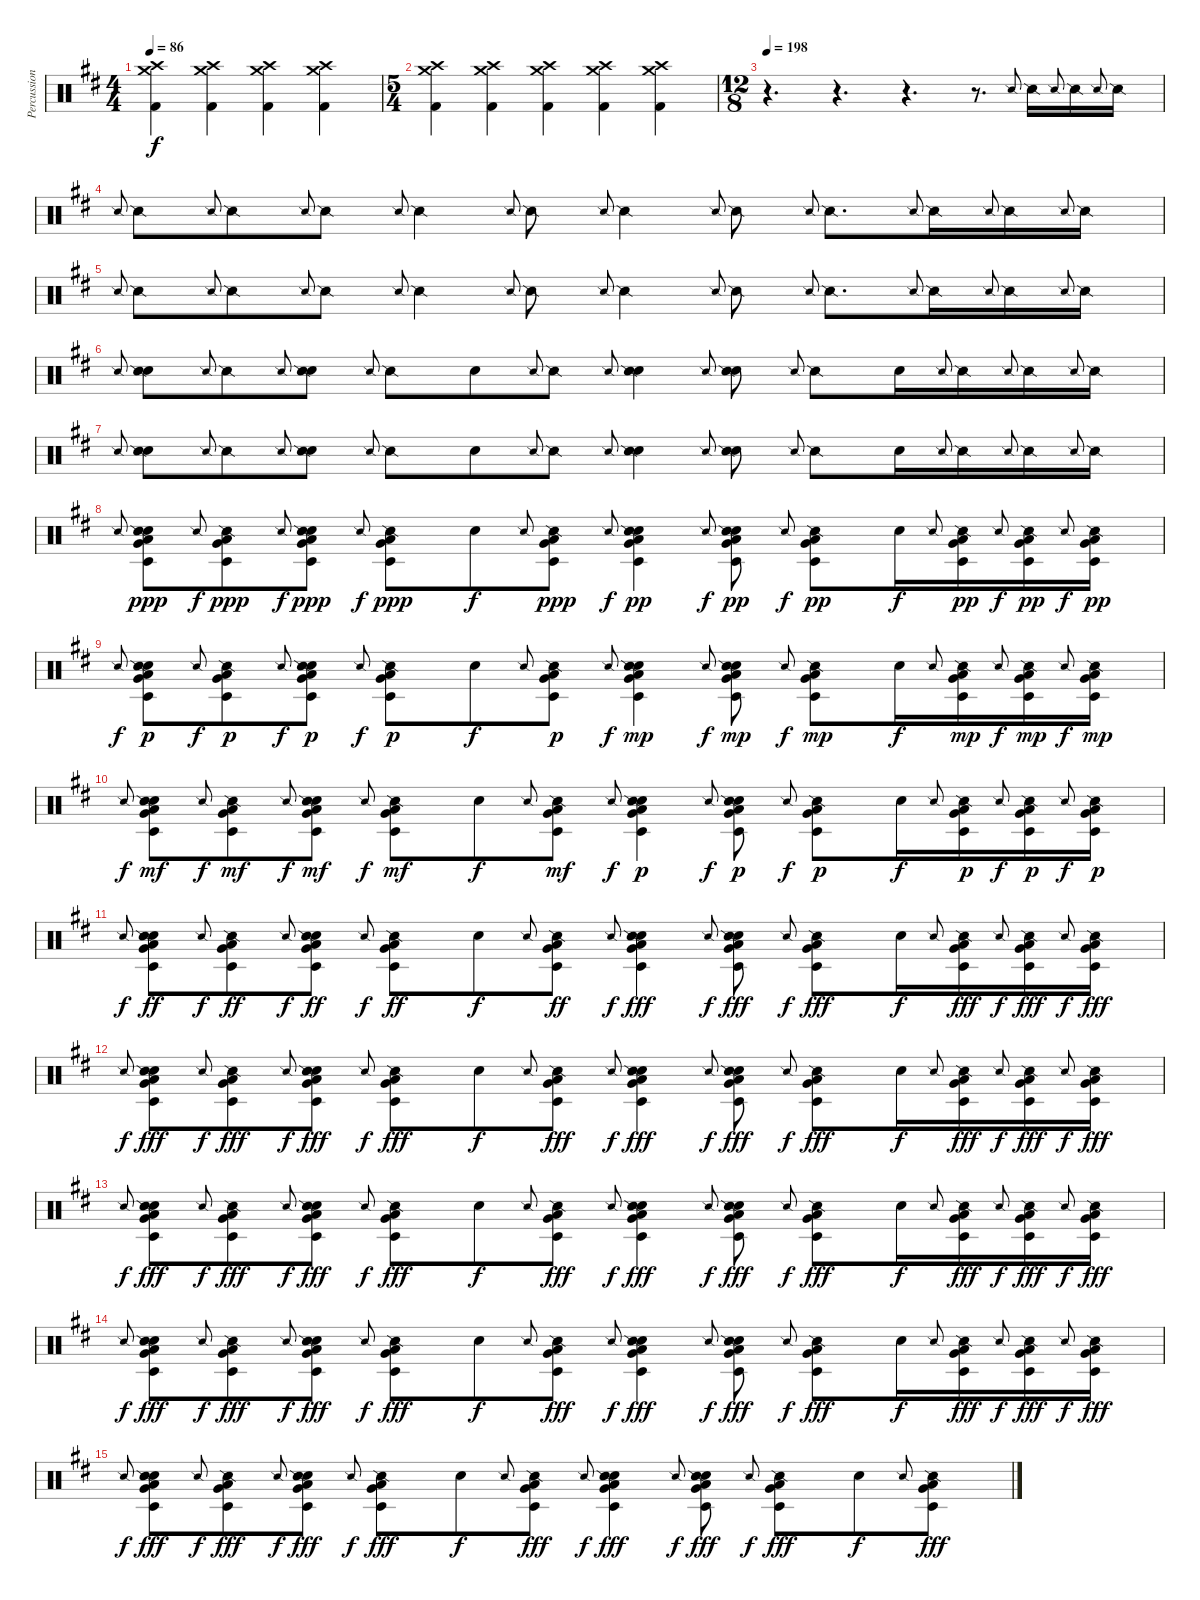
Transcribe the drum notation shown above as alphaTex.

\track ("Percussion" "Percussion") {instrument percussion}
\staff {score}
\articulation defaults
\ts (4 4)
\tempo 86
\clef neutral
\ks d
("Crash medium (hit)" "Crash high (hit)" "Kick (hit) 2").4{dy f} ("Crash medium (hit)" "Crash high (hit)" "Kick (hit) 2").4 ("Crash medium (hit)" "Crash high (hit)" "Kick (hit) 2").4 ("Crash medium (hit)" "Crash high (hit)" "Kick (hit) 2").4 |
\ts (5 4)
("Crash medium (hit)" "Crash high (hit)" "Kick (hit) 2").4 ("Crash medium (hit)" "Crash high (hit)" "Kick (hit) 2").4 ("Crash medium (hit)" "Crash high (hit)" "Kick (hit) 2").4 ("Crash medium (hit)" "Crash high (hit)" "Kick (hit) 2").4 ("Crash medium (hit)" "Crash high (hit)" "Kick (hit) 2").4 |
\ts (12 8)
\tempo 198
r.4{d} r.4{d} r.4{d} r.8{d} "Snare (side stick) 2".8{gr onbeat} "Snare (side stick) 2".16 "Snare (side stick) 2".8{gr onbeat} "Snare (side stick) 2".16 "Snare (side stick) 2".8{gr onbeat} "Snare (side stick) 2".16 |
"Snare (side stick) 2".8{gr onbeat} "Snare (side stick) 2".8 "Snare (side stick) 2".8{gr onbeat} "Snare (side stick) 2".8 "Snare (side stick) 2".8{gr onbeat} "Snare (side stick) 2".8 "Snare (side stick) 2".8{gr onbeat} "Snare (side stick) 2".4 "Snare (side stick) 2".8{gr onbeat} "Snare (side stick) 2".8 "Snare (side stick) 2".8{gr onbeat} "Snare (side stick) 2".4 "Snare (side stick) 2".8{gr onbeat} "Snare (side stick) 2".8 "Snare (side stick) 2".8{gr onbeat} "Snare (side stick) 2".8{d} "Snare (side stick) 2".8{gr onbeat} "Snare (side stick) 2".16 "Snare (side stick) 2".8{gr onbeat} "Snare (side stick) 2".16 "Snare (side stick) 2".8{gr onbeat} "Snare (side stick) 2".16 |
"Snare (side stick) 2".8{gr onbeat} "Snare (side stick) 2".8 "Snare (side stick) 2".8{gr onbeat} "Snare (side stick) 2".8 "Snare (side stick) 2".8{gr onbeat} "Snare (side stick) 2".8 "Snare (side stick) 2".8{gr onbeat} "Snare (side stick) 2".4 "Snare (side stick) 2".8{gr onbeat} "Snare (side stick) 2".8 "Snare (side stick) 2".8{gr onbeat} "Snare (side stick) 2".4 "Snare (side stick) 2".8{gr onbeat} "Snare (side stick) 2".8 "Snare (side stick) 2".8{gr onbeat} "Snare (side stick) 2".8{d} "Snare (side stick) 2".8{gr onbeat} "Snare (side stick) 2".16 "Snare (side stick) 2".8{gr onbeat} "Snare (side stick) 2".16 "Snare (side stick) 2".8{gr onbeat} "Snare (side stick) 2".16 |
"Snare (side stick) 2".8{gr onbeat} ("Hand Clap (hit)" "Snare (side stick) 2").8 "Snare (side stick) 2".8{gr onbeat} "Snare (side stick) 2".8 "Snare (side stick) 2".8{gr onbeat} ("Hand Clap (hit)" "Snare (side stick) 2").8 "Snare (side stick) 2".8{gr onbeat} "Snare (side stick) 2".8 "Hand Clap (hit)".8 "Snare (side stick) 2".8{gr onbeat} "Snare (side stick) 2".8 "Snare (side stick) 2".8{gr onbeat} ("Hand Clap (hit)" "Snare (side stick) 2").4 "Snare (side stick) 2".8{gr onbeat} ("Hand Clap (hit)" "Snare (side stick) 2").8 "Snare (side stick) 2".8{gr onbeat} "Snare (side stick) 2".8 "Hand Clap (hit)".16 "Snare (side stick) 2".8{gr onbeat} "Snare (side stick) 2".16 "Snare (side stick) 2".8{gr onbeat} "Snare (side stick) 2".16 "Snare (side stick) 2".8{gr onbeat} "Snare (side stick) 2".16 |
"Snare (side stick) 2".8{gr onbeat} ("Hand Clap (hit)" "Snare (side stick) 2").8 "Snare (side stick) 2".8{gr onbeat} "Snare (side stick) 2".8 "Snare (side stick) 2".8{gr onbeat} ("Hand Clap (hit)" "Snare (side stick) 2").8 "Snare (side stick) 2".8{gr onbeat} "Snare (side stick) 2".8 "Hand Clap (hit)".8 "Snare (side stick) 2".8{gr onbeat} "Snare (side stick) 2".8 "Snare (side stick) 2".8{gr onbeat} ("Hand Clap (hit)" "Snare (side stick) 2").4 "Snare (side stick) 2".8{gr onbeat} ("Hand Clap (hit)" "Snare (side stick) 2").8 "Snare (side stick) 2".8{gr onbeat} "Snare (side stick) 2".8 "Hand Clap (hit)".16 "Snare (side stick) 2".8{gr onbeat} "Snare (side stick) 2".16 "Snare (side stick) 2".8{gr onbeat} "Snare (side stick) 2".16 "Snare (side stick) 2".8{gr onbeat} "Snare (side stick) 2".16 |
"Snare (side stick) 2".8{gr onbeat} ("Timbale low (hit)" "Hand Clap (hit)" "Snare (side stick) 2" "Very Low Tom (hit)" "Low Floor Tom (hit)").8{dy ppp} "Snare (side stick) 2".8{gr onbeat dy f} ("Timbale low (hit)" "Snare (side stick) 2" "Very Low Tom (hit)" "Low Floor Tom (hit)").8{dy ppp} "Snare (side stick) 2".8{gr onbeat dy f} ("Timbale low (hit)" "Hand Clap (hit)" "Snare (side stick) 2" "Very Low Tom (hit)" "Low Floor Tom (hit)").8{dy ppp} "Snare (side stick) 2".8{gr onbeat dy f} ("Timbale low (hit)" "Snare (side stick) 2" "Very Low Tom (hit)" "Low Floor Tom (hit)").8{dy ppp} "Hand Clap (hit)".8{dy f} "Snare (side stick) 2".8{gr onbeat} ("Timbale low (hit)" "Snare (side stick) 2" "Very Low Tom (hit)" "Low Floor Tom (hit)").8{dy ppp} "Snare (side stick) 2".8{gr onbeat dy f} ("Timbale low (hit)" "Hand Clap (hit)" "Snare (side stick) 2" "Very Low Tom (hit)" "Low Floor Tom (hit)").4{dy pp} "Snare (side stick) 2".8{gr onbeat dy f} ("Timbale low (hit)" "Hand Clap (hit)" "Snare (side stick) 2" "Very Low Tom (hit)" "Low Floor Tom (hit)").8{dy pp} "Snare (side stick) 2".8{gr onbeat dy f} ("Timbale low (hit)" "Snare (side stick) 2" "Very Low Tom (hit)" "Low Floor Tom (hit)").8{dy pp} "Hand Clap (hit)".16{dy f} "Snare (side stick) 2".8{gr onbeat} ("Timbale low (hit)" "Snare (side stick) 2" "Very Low Tom (hit)" "Low Floor Tom (hit)").16{dy pp} "Snare (side stick) 2".8{gr onbeat dy f} ("Timbale low (hit)" "Snare (side stick) 2" "Very Low Tom (hit)" "Low Floor Tom (hit)").16{dy pp} "Snare (side stick) 2".8{gr onbeat dy f} ("Timbale low (hit)" "Snare (side stick) 2" "Very Low Tom (hit)" "Low Floor Tom (hit)").16{dy pp} |
"Snare (side stick) 2".8{gr onbeat dy f} ("Timbale low (hit)" "Hand Clap (hit)" "Snare (side stick) 2" "Very Low Tom (hit)" "Low Floor Tom (hit)").8{dy p} "Snare (side stick) 2".8{gr onbeat dy f} ("Timbale low (hit)" "Snare (side stick) 2" "Very Low Tom (hit)" "Low Floor Tom (hit)").8{dy p} "Snare (side stick) 2".8{gr onbeat dy f} ("Timbale low (hit)" "Hand Clap (hit)" "Snare (side stick) 2" "Very Low Tom (hit)" "Low Floor Tom (hit)").8{dy p} "Snare (side stick) 2".8{gr onbeat dy f} ("Timbale low (hit)" "Snare (side stick) 2" "Very Low Tom (hit)" "Low Floor Tom (hit)").8{dy p} "Hand Clap (hit)".8{dy f} "Snare (side stick) 2".8{gr onbeat} ("Timbale low (hit)" "Snare (side stick) 2" "Very Low Tom (hit)" "Low Floor Tom (hit)").8{dy p} "Snare (side stick) 2".8{gr onbeat dy f} ("Timbale low (hit)" "Hand Clap (hit)" "Snare (side stick) 2" "Very Low Tom (hit)" "Low Floor Tom (hit)").4{dy mp} "Snare (side stick) 2".8{gr onbeat dy f} ("Timbale low (hit)" "Hand Clap (hit)" "Snare (side stick) 2" "Very Low Tom (hit)" "Low Floor Tom (hit)").8{dy mp} "Snare (side stick) 2".8{gr onbeat dy f} ("Timbale low (hit)" "Snare (side stick) 2" "Very Low Tom (hit)" "Low Floor Tom (hit)").8{dy mp} "Hand Clap (hit)".16{dy f} "Snare (side stick) 2".8{gr onbeat} ("Timbale low (hit)" "Snare (side stick) 2" "Very Low Tom (hit)" "Low Floor Tom (hit)").16{dy mp} "Snare (side stick) 2".8{gr onbeat dy f} ("Timbale low (hit)" "Snare (side stick) 2" "Very Low Tom (hit)" "Low Floor Tom (hit)").16{dy mp} "Snare (side stick) 2".8{gr onbeat dy f} ("Timbale low (hit)" "Snare (side stick) 2" "Very Low Tom (hit)" "Low Floor Tom (hit)").16{dy mp} |
"Snare (side stick) 2".8{gr onbeat dy f} ("Timbale low (hit)" "Hand Clap (hit)" "Snare (side stick) 2" "Very Low Tom (hit)" "Low Floor Tom (hit)").8{dy mf} "Snare (side stick) 2".8{gr onbeat dy f} ("Timbale low (hit)" "Snare (side stick) 2" "Very Low Tom (hit)" "Low Floor Tom (hit)").8{dy mf} "Snare (side stick) 2".8{gr onbeat dy f} ("Timbale low (hit)" "Hand Clap (hit)" "Snare (side stick) 2" "Very Low Tom (hit)" "Low Floor Tom (hit)").8{dy mf} "Snare (side stick) 2".8{gr onbeat dy f} ("Timbale low (hit)" "Snare (side stick) 2" "Very Low Tom (hit)" "Low Floor Tom (hit)").8{dy mf} "Hand Clap (hit)".8{dy f} "Snare (side stick) 2".8{gr onbeat} ("Timbale low (hit)" "Snare (side stick) 2" "Very Low Tom (hit)" "Low Floor Tom (hit)").8{dy mf} "Snare (side stick) 2".8{gr onbeat dy f} ("Timbale low (hit)" "Hand Clap (hit)" "Snare (side stick) 2" "Very Low Tom (hit)" "Low Floor Tom (hit)").4{dy p} "Snare (side stick) 2".8{gr onbeat dy f} ("Timbale low (hit)" "Hand Clap (hit)" "Snare (side stick) 2" "Very Low Tom (hit)" "Low Floor Tom (hit)").8{dy p} "Snare (side stick) 2".8{gr onbeat dy f} ("Timbale low (hit)" "Snare (side stick) 2" "Very Low Tom (hit)" "Low Floor Tom (hit)").8{dy p} "Hand Clap (hit)".16{dy f} "Snare (side stick) 2".8{gr onbeat} ("Timbale low (hit)" "Snare (side stick) 2" "Very Low Tom (hit)" "Low Floor Tom (hit)").16{dy p} "Snare (side stick) 2".8{gr onbeat dy f} ("Timbale low (hit)" "Snare (side stick) 2" "Very Low Tom (hit)" "Low Floor Tom (hit)").16{dy p} "Snare (side stick) 2".8{gr onbeat dy f} ("Timbale low (hit)" "Snare (side stick) 2" "Very Low Tom (hit)" "Low Floor Tom (hit)").16{dy p} |
"Snare (side stick) 2".8{gr onbeat dy f} ("Timbale low (hit)" "Hand Clap (hit)" "Snare (side stick) 2" "Very Low Tom (hit)" "Low Floor Tom (hit)").8{dy ff} "Snare (side stick) 2".8{gr onbeat dy f} ("Timbale low (hit)" "Snare (side stick) 2" "Very Low Tom (hit)" "Low Floor Tom (hit)").8{dy ff} "Snare (side stick) 2".8{gr onbeat dy f} ("Timbale low (hit)" "Hand Clap (hit)" "Snare (side stick) 2" "Very Low Tom (hit)" "Low Floor Tom (hit)").8{dy ff} "Snare (side stick) 2".8{gr onbeat dy f} ("Timbale low (hit)" "Snare (side stick) 2" "Very Low Tom (hit)" "Low Floor Tom (hit)").8{dy ff} "Hand Clap (hit)".8{dy f} "Snare (side stick) 2".8{gr onbeat} ("Timbale low (hit)" "Snare (side stick) 2" "Very Low Tom (hit)" "Low Floor Tom (hit)").8{dy ff} "Snare (side stick) 2".8{gr onbeat dy f} ("Timbale low (hit)" "Hand Clap (hit)" "Snare (side stick) 2" "Very Low Tom (hit)" "Low Floor Tom (hit)").4{dy fff} "Snare (side stick) 2".8{gr onbeat dy f} ("Timbale low (hit)" "Hand Clap (hit)" "Snare (side stick) 2" "Very Low Tom (hit)" "Low Floor Tom (hit)").8{dy fff} "Snare (side stick) 2".8{gr onbeat dy f} ("Timbale low (hit)" "Snare (side stick) 2" "Very Low Tom (hit)" "Low Floor Tom (hit)").8{dy fff} "Hand Clap (hit)".16{dy f} "Snare (side stick) 2".8{gr onbeat} ("Timbale low (hit)" "Snare (side stick) 2" "Very Low Tom (hit)" "Low Floor Tom (hit)").16{dy fff} "Snare (side stick) 2".8{gr onbeat dy f} ("Timbale low (hit)" "Snare (side stick) 2" "Very Low Tom (hit)" "Low Floor Tom (hit)").16{dy fff} "Snare (side stick) 2".8{gr onbeat dy f} ("Timbale low (hit)" "Snare (side stick) 2" "Very Low Tom (hit)" "Low Floor Tom (hit)").16{dy fff} |
"Snare (side stick) 2".8{gr onbeat dy f} ("Timbale low (hit)" "Hand Clap (hit)" "Snare (side stick) 2" "Very Low Tom (hit)" "Low Floor Tom (hit)").8{dy fff} "Snare (side stick) 2".8{gr onbeat dy f} ("Timbale low (hit)" "Snare (side stick) 2" "Very Low Tom (hit)" "Low Floor Tom (hit)").8{dy fff} "Snare (side stick) 2".8{gr onbeat dy f} ("Timbale low (hit)" "Hand Clap (hit)" "Snare (side stick) 2" "Very Low Tom (hit)" "Low Floor Tom (hit)").8{dy fff} "Snare (side stick) 2".8{gr onbeat dy f} ("Timbale low (hit)" "Snare (side stick) 2" "Very Low Tom (hit)" "Low Floor Tom (hit)").8{dy fff} "Hand Clap (hit)".8{dy f} "Snare (side stick) 2".8{gr onbeat} ("Timbale low (hit)" "Snare (side stick) 2" "Very Low Tom (hit)" "Low Floor Tom (hit)").8{dy fff} "Snare (side stick) 2".8{gr onbeat dy f} ("Timbale low (hit)" "Hand Clap (hit)" "Snare (side stick) 2" "Very Low Tom (hit)" "Low Floor Tom (hit)").4{dy fff} "Snare (side stick) 2".8{gr onbeat dy f} ("Timbale low (hit)" "Hand Clap (hit)" "Snare (side stick) 2" "Very Low Tom (hit)" "Low Floor Tom (hit)").8{dy fff} "Snare (side stick) 2".8{gr onbeat dy f} ("Timbale low (hit)" "Snare (side stick) 2" "Very Low Tom (hit)" "Low Floor Tom (hit)").8{dy fff} "Hand Clap (hit)".16{dy f} "Snare (side stick) 2".8{gr onbeat} ("Timbale low (hit)" "Snare (side stick) 2" "Very Low Tom (hit)" "Low Floor Tom (hit)").16{dy fff} "Snare (side stick) 2".8{gr onbeat dy f} ("Timbale low (hit)" "Snare (side stick) 2" "Very Low Tom (hit)" "Low Floor Tom (hit)").16{dy fff} "Snare (side stick) 2".8{gr onbeat dy f} ("Timbale low (hit)" "Snare (side stick) 2" "Very Low Tom (hit)" "Low Floor Tom (hit)").16{dy fff} |
"Snare (side stick) 2".8{gr onbeat dy f} ("Timbale low (hit)" "Hand Clap (hit)" "Snare (side stick) 2" "Very Low Tom (hit)" "Low Floor Tom (hit)").8{dy fff} "Snare (side stick) 2".8{gr onbeat dy f} ("Timbale low (hit)" "Snare (side stick) 2" "Very Low Tom (hit)" "Low Floor Tom (hit)").8{dy fff} "Snare (side stick) 2".8{gr onbeat dy f} ("Timbale low (hit)" "Hand Clap (hit)" "Snare (side stick) 2" "Very Low Tom (hit)" "Low Floor Tom (hit)").8{dy fff} "Snare (side stick) 2".8{gr onbeat dy f} ("Timbale low (hit)" "Snare (side stick) 2" "Very Low Tom (hit)" "Low Floor Tom (hit)").8{dy fff} "Hand Clap (hit)".8{dy f} "Snare (side stick) 2".8{gr onbeat} ("Timbale low (hit)" "Snare (side stick) 2" "Very Low Tom (hit)" "Low Floor Tom (hit)").8{dy fff} "Snare (side stick) 2".8{gr onbeat dy f} ("Timbale low (hit)" "Hand Clap (hit)" "Snare (side stick) 2" "Very Low Tom (hit)" "Low Floor Tom (hit)").4{dy fff} "Snare (side stick) 2".8{gr onbeat dy f} ("Timbale low (hit)" "Hand Clap (hit)" "Snare (side stick) 2" "Very Low Tom (hit)" "Low Floor Tom (hit)").8{dy fff} "Snare (side stick) 2".8{gr onbeat dy f} ("Timbale low (hit)" "Snare (side stick) 2" "Very Low Tom (hit)" "Low Floor Tom (hit)").8{dy fff} "Hand Clap (hit)".16{dy f} "Snare (side stick) 2".8{gr onbeat} ("Timbale low (hit)" "Snare (side stick) 2" "Very Low Tom (hit)" "Low Floor Tom (hit)").16{dy fff} "Snare (side stick) 2".8{gr onbeat dy f} ("Timbale low (hit)" "Snare (side stick) 2" "Very Low Tom (hit)" "Low Floor Tom (hit)").16{dy fff} "Snare (side stick) 2".8{gr onbeat dy f} ("Timbale low (hit)" "Snare (side stick) 2" "Very Low Tom (hit)" "Low Floor Tom (hit)").16{dy fff} |
"Snare (side stick) 2".8{gr onbeat dy f} ("Timbale low (hit)" "Hand Clap (hit)" "Snare (side stick) 2" "Very Low Tom (hit)" "Low Floor Tom (hit)").8{dy fff} "Snare (side stick) 2".8{gr onbeat dy f} ("Timbale low (hit)" "Snare (side stick) 2" "Very Low Tom (hit)" "Low Floor Tom (hit)").8{dy fff} "Snare (side stick) 2".8{gr onbeat dy f} ("Timbale low (hit)" "Hand Clap (hit)" "Snare (side stick) 2" "Very Low Tom (hit)" "Low Floor Tom (hit)").8{dy fff} "Snare (side stick) 2".8{gr onbeat dy f} ("Timbale low (hit)" "Snare (side stick) 2" "Very Low Tom (hit)" "Low Floor Tom (hit)").8{dy fff} "Hand Clap (hit)".8{dy f} "Snare (side stick) 2".8{gr onbeat} ("Timbale low (hit)" "Snare (side stick) 2" "Very Low Tom (hit)" "Low Floor Tom (hit)").8{dy fff} "Snare (side stick) 2".8{gr onbeat dy f} ("Timbale low (hit)" "Hand Clap (hit)" "Snare (side stick) 2" "Very Low Tom (hit)" "Low Floor Tom (hit)").4{dy fff} "Snare (side stick) 2".8{gr onbeat dy f} ("Timbale low (hit)" "Hand Clap (hit)" "Snare (side stick) 2" "Very Low Tom (hit)" "Low Floor Tom (hit)").8{dy fff} "Snare (side stick) 2".8{gr onbeat dy f} ("Timbale low (hit)" "Snare (side stick) 2" "Very Low Tom (hit)" "Low Floor Tom (hit)").8{dy fff} "Hand Clap (hit)".16{dy f} "Snare (side stick) 2".8{gr onbeat} ("Timbale low (hit)" "Snare (side stick) 2" "Very Low Tom (hit)" "Low Floor Tom (hit)").16{dy fff} "Snare (side stick) 2".8{gr onbeat dy f} ("Timbale low (hit)" "Snare (side stick) 2" "Very Low Tom (hit)" "Low Floor Tom (hit)").16{dy fff} "Snare (side stick) 2".8{gr onbeat dy f} ("Timbale low (hit)" "Snare (side stick) 2" "Very Low Tom (hit)" "Low Floor Tom (hit)").16{dy fff} |
"Snare (side stick) 2".8{gr onbeat dy f} ("Timbale low (hit)" "Hand Clap (hit)" "Snare (side stick) 2" "Very Low Tom (hit)" "Low Floor Tom (hit)").8{dy fff} "Snare (side stick) 2".8{gr onbeat dy f} ("Timbale low (hit)" "Snare (side stick) 2" "Very Low Tom (hit)" "Low Floor Tom (hit)").8{dy fff} "Snare (side stick) 2".8{gr onbeat dy f} ("Timbale low (hit)" "Hand Clap (hit)" "Snare (side stick) 2" "Very Low Tom (hit)" "Low Floor Tom (hit)").8{dy fff} "Snare (side stick) 2".8{gr onbeat dy f} ("Timbale low (hit)" "Snare (side stick) 2" "Very Low Tom (hit)" "Low Floor Tom (hit)").8{dy fff} "Hand Clap (hit)".8{dy f} "Snare (side stick) 2".8{gr onbeat} ("Timbale low (hit)" "Snare (side stick) 2" "Very Low Tom (hit)" "Low Floor Tom (hit)").8{dy fff} "Snare (side stick) 2".8{gr onbeat dy f} ("Timbale low (hit)" "Hand Clap (hit)" "Snare (side stick) 2" "Very Low Tom (hit)" "Low Floor Tom (hit)").4{dy fff} "Snare (side stick) 2".8{gr onbeat dy f} ("Timbale low (hit)" "Hand Clap (hit)" "Snare (side stick) 2" "Very Low Tom (hit)" "Low Floor Tom (hit)").8{dy fff} "Snare (side stick) 2".8{gr onbeat dy f} ("Timbale low (hit)" "Snare (side stick) 2" "Very Low Tom (hit)" "Low Floor Tom (hit)").8{dy fff} "Hand Clap (hit)".8{dy f} "Snare (side stick) 2".8{gr onbeat} ("Timbale low (hit)" "Snare (side stick) 2" "Very Low Tom (hit)" "Low Floor Tom (hit)").8{dy fff}
